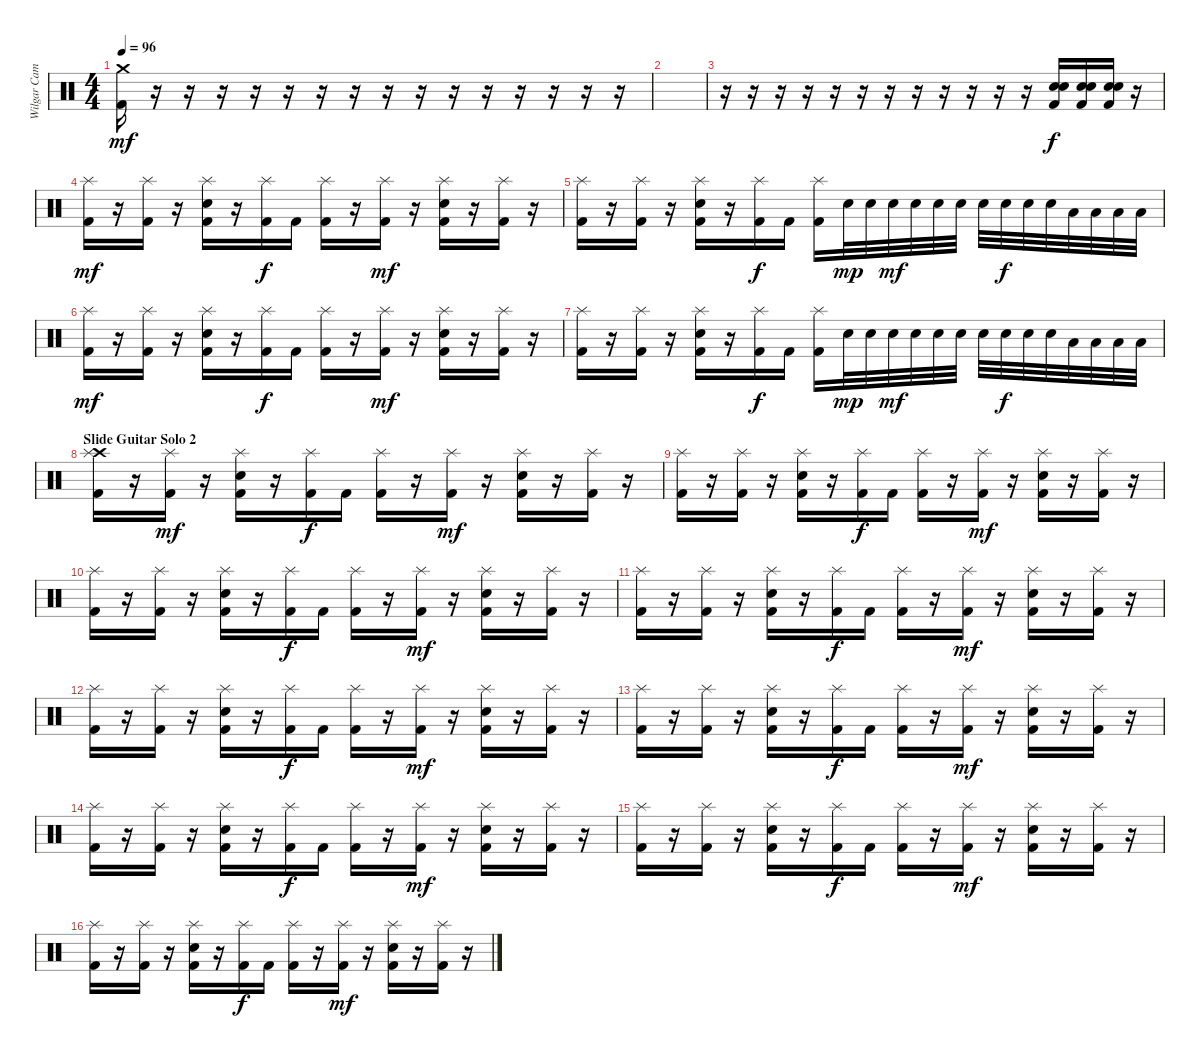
\track ("Wilgar Campbell" "Wilgar Cam") {instrument percussion}
\staff {score}
\articulation defaults
\ts (4 4)
\tempo 96
\clef neutral
\ks c
("Crash medium (hit)" "Kick (hit) 2").16{dy mf} r.16 r.16 r.16 r.16 r.16 r.16 r.16 r.16 r.16 r.16 r.16 r.16 r.16 r.16 r.16 |
|
r.16 r.16 r.16 r.16 r.16 r.16 r.16 r.16 r.16 r.16 r.16 r.16 ("Electric Snare (hit)" "Snare (hit) 2" "Kick (hit) 2").16{dy f} ("Electric Snare (hit)" "Snare (hit) 2" "Kick (hit) 2").16 ("Electric Snare (hit)" "Snare (hit) 2" "Kick (hit) 2").16 r.16 |
("Splash (hit)" "Kick (hit) 2").16{dy mf} r.16 ("Splash (hit)" "Kick (hit) 2").16 r.16 ("Splash (hit)" "Snare (hit) 2" "Kick (hit) 2").16 r.16 ("Splash (hit)" "Kick (hit) 2").16{dy f} "Kick (hit) 2".16 ("Splash (hit)" "Kick (hit) 2").16 r.16 ("Splash (hit)" "Kick (hit) 2").16{dy mf} r.16 ("Splash (hit)" "Snare (hit) 2" "Kick (hit) 2").16 r.16 ("Splash (hit)" "Kick (hit) 2").16 r.16 |
("Splash (hit)" "Kick (hit) 2").16 r.16 ("Splash (hit)" "Kick (hit) 2").16 r.16 ("Splash (hit)" "Snare (hit) 2" "Kick (hit) 2").16 r.16 ("Splash (hit)" "Kick (hit) 2").16{dy f} "Kick (hit) 2".16 ("Splash (hit)" "Kick (hit) 2").16 "Snare (hit) 2".32{dy mp} "Snare (hit) 2".32 "Snare (hit) 2".32{dy mf} "Snare (hit) 2".32 "Snare (hit) 2".32 "Snare (hit) 2".32 "Electric Snare (hit)".32 "Snare (hit) 2".32{dy f} "Snare (hit) 2".32 "Snare (hit) 2".32 "Low Tom (hit)".32 "Low Tom (hit)".32 "Low Tom (hit)".32 "Low Tom (hit)".32 |
("Splash (hit)" "Kick (hit) 2").16{dy mf} r.16 ("Splash (hit)" "Kick (hit) 2").16 r.16 ("Splash (hit)" "Snare (hit) 2" "Kick (hit) 2").16 r.16 ("Splash (hit)" "Kick (hit) 2").16{dy f} "Kick (hit) 2".16 ("Splash (hit)" "Kick (hit) 2").16 r.16 ("Splash (hit)" "Kick (hit) 2").16{dy mf} r.16 ("Splash (hit)" "Snare (hit) 2" "Kick (hit) 2").16 r.16 ("Splash (hit)" "Kick (hit) 2").16 r.16 |
("Splash (hit)" "Kick (hit) 2").16 r.16 ("Splash (hit)" "Kick (hit) 2").16 r.16 ("Splash (hit)" "Snare (hit) 2" "Kick (hit) 2").16 r.16 ("Splash (hit)" "Kick (hit) 2").16{dy f} "Kick (hit) 2".16 ("Splash (hit)" "Kick (hit) 2").16 "Snare (hit) 2".32{dy mp} "Snare (hit) 2".32 "Snare (hit) 2".32{dy mf} "Snare (hit) 2".32 "Snare (hit) 2".32 "Snare (hit) 2".32 "Electric Snare (hit)".32 "Snare (hit) 2".32{dy f} "Snare (hit) 2".32 "Snare (hit) 2".32 "Low Tom (hit)".32 "Low Tom (hit)".32 "Low Tom (hit)".32 "Low Tom (hit)".32 |
\section ("" "Slide Guitar Solo 2")
("Crash high (hit)" "Splash (hit)" "Kick (hit) 2").16 r.16 ("Splash (hit)" "Kick (hit) 2").16{dy mf} r.16 ("Splash (hit)" "Snare (hit) 2" "Kick (hit) 2").16 r.16 ("Splash (hit)" "Kick (hit) 2").16{dy f} "Kick (hit) 2".16 ("Splash (hit)" "Kick (hit) 2").16 r.16 ("Splash (hit)" "Kick (hit) 2").16{dy mf} r.16 ("Splash (hit)" "Snare (hit) 2" "Kick (hit) 2").16 r.16 ("Splash (hit)" "Kick (hit) 2").16 r.16 |
("Splash (hit)" "Kick (hit) 2").16 r.16 ("Splash (hit)" "Kick (hit) 2").16 r.16 ("Splash (hit)" "Snare (hit) 2" "Kick (hit) 2").16 r.16 ("Splash (hit)" "Kick (hit) 2").16{dy f} "Kick (hit) 2".16 ("Splash (hit)" "Kick (hit) 2").16 r.16 ("Splash (hit)" "Kick (hit) 2").16{dy mf} r.16 ("Splash (hit)" "Snare (hit) 2" "Kick (hit) 2").16 r.16 ("Splash (hit)" "Kick (hit) 2").16 r.16 |
("Splash (hit)" "Kick (hit) 2").16 r.16 ("Splash (hit)" "Kick (hit) 2").16 r.16 ("Splash (hit)" "Snare (hit) 2" "Kick (hit) 2").16 r.16 ("Splash (hit)" "Kick (hit) 2").16{dy f} "Kick (hit) 2".16 ("Splash (hit)" "Kick (hit) 2").16 r.16 ("Splash (hit)" "Kick (hit) 2").16{dy mf} r.16 ("Splash (hit)" "Snare (hit) 2" "Kick (hit) 2").16 r.16 ("Splash (hit)" "Kick (hit) 2").16 r.16 |
("Splash (hit)" "Kick (hit) 2").16 r.16 ("Splash (hit)" "Kick (hit) 2").16 r.16 ("Splash (hit)" "Snare (hit) 2" "Kick (hit) 2").16 r.16 ("Splash (hit)" "Kick (hit) 2").16{dy f} "Kick (hit) 2".16 ("Splash (hit)" "Kick (hit) 2").16 r.16 ("Splash (hit)" "Kick (hit) 2").16{dy mf} r.16 ("Splash (hit)" "Snare (hit) 2" "Kick (hit) 2").16 r.16 ("Splash (hit)" "Kick (hit) 2").16 r.16 |
("Splash (hit)" "Kick (hit) 2").16 r.16 ("Splash (hit)" "Kick (hit) 2").16 r.16 ("Splash (hit)" "Snare (hit) 2" "Kick (hit) 2").16 r.16 ("Splash (hit)" "Kick (hit) 2").16{dy f} "Kick (hit) 2".16 ("Splash (hit)" "Kick (hit) 2").16 r.16 ("Splash (hit)" "Kick (hit) 2").16{dy mf} r.16 ("Splash (hit)" "Snare (hit) 2" "Kick (hit) 2").16 r.16 ("Splash (hit)" "Kick (hit) 2").16 r.16 |
("Splash (hit)" "Kick (hit) 2").16 r.16 ("Splash (hit)" "Kick (hit) 2").16 r.16 ("Splash (hit)" "Snare (hit) 2" "Kick (hit) 2").16 r.16 ("Splash (hit)" "Kick (hit) 2").16{dy f} "Kick (hit) 2".16 ("Splash (hit)" "Kick (hit) 2").16 r.16 ("Splash (hit)" "Kick (hit) 2").16{dy mf} r.16 ("Splash (hit)" "Snare (hit) 2" "Kick (hit) 2").16 r.16 ("Splash (hit)" "Kick (hit) 2").16 r.16 |
("Splash (hit)" "Kick (hit) 2").16 r.16 ("Splash (hit)" "Kick (hit) 2").16 r.16 ("Splash (hit)" "Snare (hit) 2" "Kick (hit) 2").16 r.16 ("Splash (hit)" "Kick (hit) 2").16{dy f} "Kick (hit) 2".16 ("Splash (hit)" "Kick (hit) 2").16 r.16 ("Splash (hit)" "Kick (hit) 2").16{dy mf} r.16 ("Splash (hit)" "Snare (hit) 2" "Kick (hit) 2").16 r.16 ("Splash (hit)" "Kick (hit) 2").16 r.16 |
("Splash (hit)" "Kick (hit) 2").16 r.16 ("Splash (hit)" "Kick (hit) 2").16 r.16 ("Splash (hit)" "Snare (hit) 2" "Kick (hit) 2").16 r.16 ("Splash (hit)" "Kick (hit) 2").16{dy f} "Kick (hit) 2".16 ("Splash (hit)" "Kick (hit) 2").16 r.16 ("Splash (hit)" "Kick (hit) 2").16{dy mf} r.16 ("Splash (hit)" "Snare (hit) 2" "Kick (hit) 2").16 r.16 ("Splash (hit)" "Kick (hit) 2").16 r.16 |
("Splash (hit)" "Kick (hit) 2").16 r.16 ("Splash (hit)" "Kick (hit) 2").16 r.16 ("Splash (hit)" "Snare (hit) 2" "Kick (hit) 2").16 r.16 ("Splash (hit)" "Kick (hit) 2").16{dy f} "Kick (hit) 2".16 ("Splash (hit)" "Kick (hit) 2").16 r.16 ("Splash (hit)" "Kick (hit) 2").16{dy mf} r.16 ("Splash (hit)" "Snare (hit) 2" "Kick (hit) 2").16 r.16 ("Splash (hit)" "Kick (hit) 2").16 r.16
